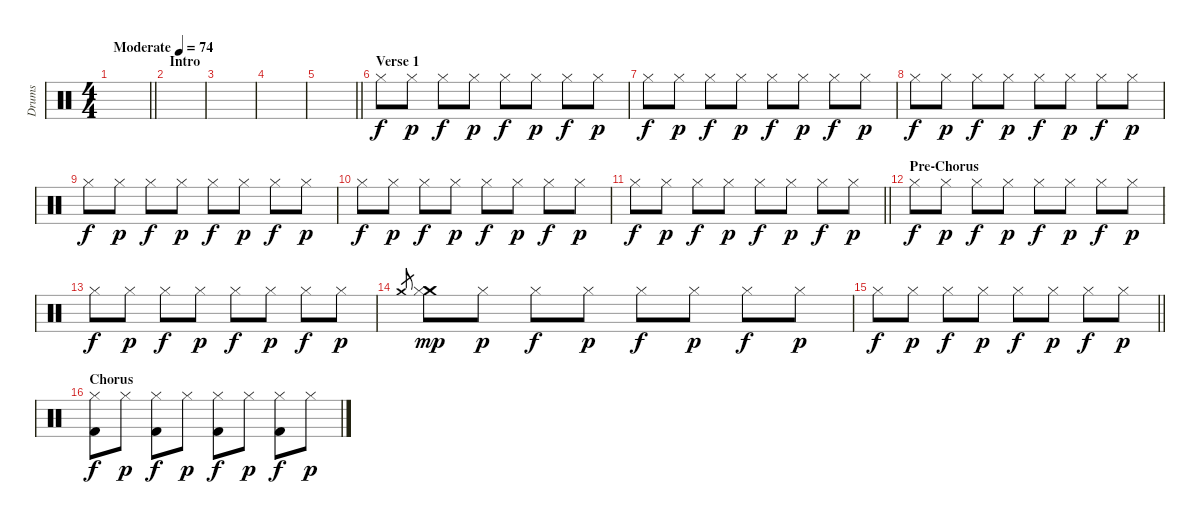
\track ("Drums" "Drums") {instrument percussion}
\staff {score}
\articulation defaults
\ts (4 4)
\section ("" "")
\tempo (74 "Moderate")
\clef neutral
\barLineRight lightlight
\ks c
|
\section ("" "Intro")
|
|
|
\barLineRight lightlight
|
\section ("" "Verse 1")
"Hi-Hat (closed)".8 "Hi-Hat (closed)".8{dy p} "Hi-Hat (closed)".8{dy f} "Hi-Hat (closed)".8{dy p} "Hi-Hat (closed)".8{dy f} "Hi-Hat (closed)".8{dy p} "Hi-Hat (closed)".8{dy f} "Hi-Hat (closed)".8{dy p} |
"Hi-Hat (closed)".8{dy f} "Hi-Hat (closed)".8{dy p} "Hi-Hat (closed)".8{dy f} "Hi-Hat (closed)".8{dy p} "Hi-Hat (closed)".8{dy f} "Hi-Hat (closed)".8{dy p} "Hi-Hat (closed)".8{dy f} "Hi-Hat (closed)".8{dy p} |
"Hi-Hat (closed)".8{dy f} "Hi-Hat (closed)".8{dy p} "Hi-Hat (closed)".8{dy f} "Hi-Hat (closed)".8{dy p} "Hi-Hat (closed)".8{dy f} "Hi-Hat (closed)".8{dy p} "Hi-Hat (closed)".8{dy f} "Hi-Hat (closed)".8{dy p} |
"Hi-Hat (closed)".8{dy f} "Hi-Hat (closed)".8{dy p} "Hi-Hat (closed)".8{dy f} "Hi-Hat (closed)".8{dy p} "Hi-Hat (closed)".8{dy f} "Hi-Hat (closed)".8{dy p} "Hi-Hat (closed)".8{dy f} "Hi-Hat (closed)".8{dy p} |
"Hi-Hat (closed)".8{dy f} "Hi-Hat (closed)".8{dy p} "Hi-Hat (closed)".8{dy f} "Hi-Hat (closed)".8{dy p} "Hi-Hat (closed)".8{dy f} "Hi-Hat (closed)".8{dy p} "Hi-Hat (closed)".8{dy f} "Hi-Hat (closed)".8{dy p} |
\barLineRight lightlight "Hi-Hat (closed)".8{dy f} "Hi-Hat (closed)".8{dy p} "Hi-Hat (closed)".8{dy f} "Hi-Hat (closed)".8{dy p} "Hi-Hat (closed)".8{dy f} "Hi-Hat (closed)".8{dy p} "Hi-Hat (closed)".8{dy f} "Hi-Hat (closed)".8{dy p}
|
\section ("" "Pre-Chorus")
"Hi-Hat (closed)".8{dy f} "Hi-Hat (closed)".8{dy p} "Hi-Hat (closed)".8{dy f} "Hi-Hat (closed)".8{dy p} "Hi-Hat (closed)".8{dy f} "Hi-Hat (closed)".8{dy p} "Hi-Hat (closed)".8{dy f} "Hi-Hat (closed)".8{dy p} |
"Hi-Hat (closed)".8{dy f} "Hi-Hat (closed)".8{dy p} "Hi-Hat (closed)".8{dy f} "Hi-Hat (closed)".8{dy p} "Hi-Hat (closed)".8{dy f} "Hi-Hat (closed)".8{dy p} "Hi-Hat (closed)".8{dy f} "Hi-Hat (closed)".8{dy p} |
"Crash medium (hit)".8{gr} ("Crash medium (hit)" "Hi-Hat (closed)").8{dy mp} "Hi-Hat (closed)".8{dy p} "Hi-Hat (closed)".8{dy f} "Hi-Hat (closed)".8{dy p} "Hi-Hat (closed)".8{dy f} "Hi-Hat (closed)".8{dy p} "Hi-Hat (closed)".8{dy f} "Hi-Hat (closed)".8{dy p} |
\barLineRight lightlight "Hi-Hat (closed)".8{dy f} "Hi-Hat (closed)".8{dy p} "Hi-Hat (closed)".8{dy f} "Hi-Hat (closed)".8{dy p} "Hi-Hat (closed)".8{dy f} "Hi-Hat (closed)".8{dy p} "Hi-Hat (closed)".8{dy f} "Hi-Hat (closed)".8{dy p}
|
\section ("" "Chorus")
("Hi-Hat (closed)" "Kick (hit) 2").8{dy f} "Hi-Hat (closed)".8{dy p} ("Hi-Hat (closed)" "Kick (hit) 2").8{dy f} "Hi-Hat (closed)".8{dy p} ("Hi-Hat (closed)" "Kick (hit) 2").8{dy f} "Hi-Hat (closed)".8{dy p} ("Hi-Hat (closed)" "Kick (hit) 2").8{dy f} "Hi-Hat (closed)".8{dy p}
